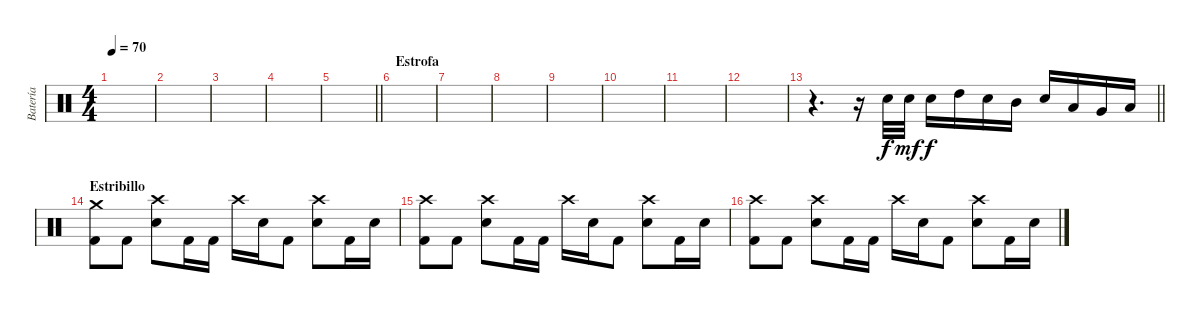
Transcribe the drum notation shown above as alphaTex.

\track ("Batería" "Batería") {instrument percussion}
\staff {score}
\articulation defaults
\ts (4 4)
\tempo 70
\clef neutral
\ks c
|
|
|
|
\barLineRight lightlight
|
\section ("" "Estrofa")
|
|
|
|
|
|
|
\barLineRight lightlight
r.4{d} r.16 "Electric Snare (hit)".32 "Electric Snare (hit)".32{dy mf} "Electric Snare (hit)".16{dy f} "High Tom (hit)".16 "Electric Snare (hit)".16 "Mid Tom (hit)".16 "Electric Snare (hit)".16 "Low Tom (hit)".16 "Very Low Tom (hit)".16 "Low Floor Tom (hit)".16 |
\section ("" "Estribillo")
("Crash medium (hit)" "Kick (hit) 2").8 "Kick (hit) 2".8 ("Crash high (hit)" "Electric Snare (hit)").8 "Kick (hit) 2".16 "Kick (hit) 2".16 "Crash high (hit)".16 "Electric Snare (hit)".16 "Kick (hit) 2".8 ("Crash high (hit)" "Electric Snare (hit)").8 "Kick (hit) 2".16 "Electric Snare (hit)".16 |
("Crash high (hit)" "Kick (hit) 2").8 "Kick (hit) 2".8 ("Crash high (hit)" "Electric Snare (hit)").8 "Kick (hit) 2".16 "Kick (hit) 2".16 "Crash high (hit)".16 "Electric Snare (hit)".16 "Kick (hit) 2".8 ("Crash high (hit)" "Electric Snare (hit)").8 "Kick (hit) 2".16 "Electric Snare (hit)".16 |
("Crash high (hit)" "Kick (hit) 2").8 "Kick (hit) 2".8 ("Crash high (hit)" "Electric Snare (hit)").8 "Kick (hit) 2".16 "Kick (hit) 2".16 "Crash high (hit)".16 "Electric Snare (hit)".16 "Kick (hit) 2".8 ("Crash high (hit)" "Electric Snare (hit)").8 "Kick (hit) 2".16 "Electric Snare (hit)".16
